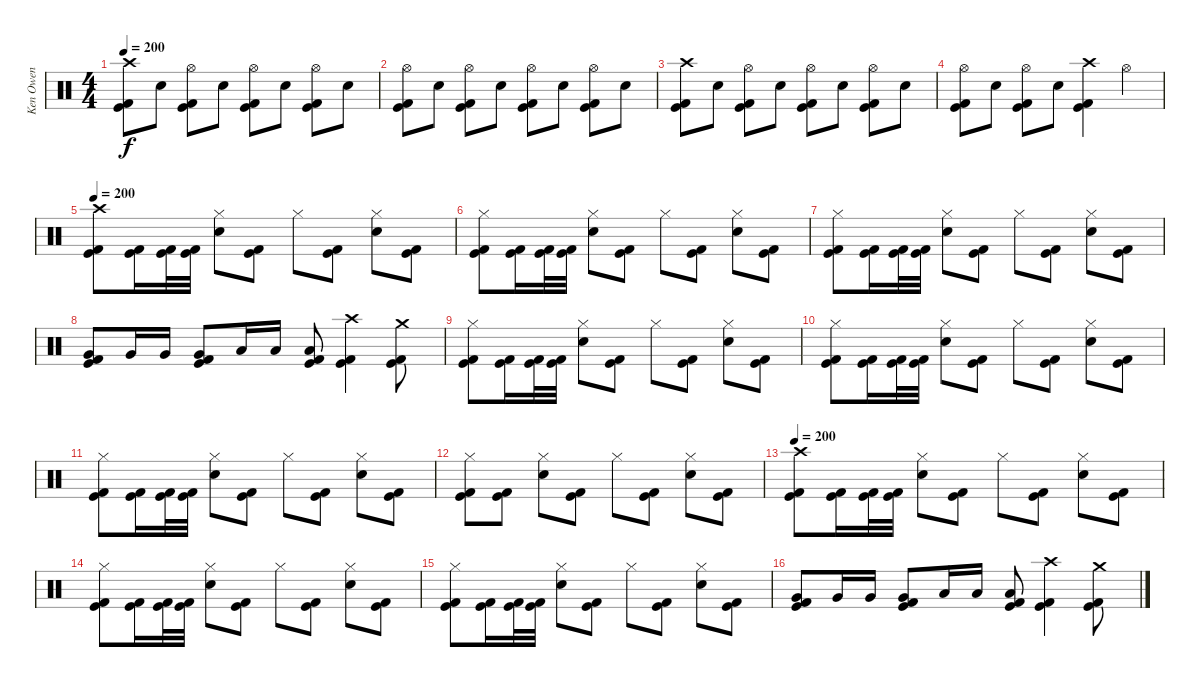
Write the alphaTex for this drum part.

\track ("Ken Owen" "Ken Owen") {instrument percussion}
\staff {score}
\articulation defaults
\ts (4 4)
\tempo 200
\clef neutral
\ks c
("Crash high (hit)" "Kick (hit)" "Kick (hit) 2").8{dy f} "Electric Snare (hit)".8 ("Hi-Hat (open)" "Kick (hit)" "Kick (hit) 2").8 "Electric Snare (hit)".8 ("Hi-Hat (open)" "Kick (hit)" "Kick (hit) 2").8 "Electric Snare (hit)".8 ("Hi-Hat (open)" "Kick (hit)" "Kick (hit) 2").8 "Electric Snare (hit)".8 |
("Hi-Hat (open)" "Kick (hit)" "Kick (hit) 2").8 "Electric Snare (hit)".8 ("Hi-Hat (open)" "Kick (hit)" "Kick (hit) 2").8 "Electric Snare (hit)".8 ("Hi-Hat (open)" "Kick (hit)" "Kick (hit) 2").8 "Electric Snare (hit)".8 ("Hi-Hat (open)" "Kick (hit)" "Kick (hit) 2").8 "Electric Snare (hit)".8 |
("Crash high (hit)" "Kick (hit)" "Kick (hit) 2").8 "Electric Snare (hit)".8 ("Hi-Hat (open)" "Kick (hit)" "Kick (hit) 2").8 "Electric Snare (hit)".8 ("Hi-Hat (open)" "Kick (hit)" "Kick (hit) 2").8 "Electric Snare (hit)".8 ("Hi-Hat (open)" "Kick (hit)" "Kick (hit) 2").8 "Electric Snare (hit)".8 |
("Hi-Hat (open)" "Kick (hit)" "Kick (hit) 2").8 "Electric Snare (hit)".8 ("Hi-Hat (open)" "Kick (hit)" "Kick (hit) 2").8 "Electric Snare (hit)".8 ("Crash high (hit)" "Kick (hit)" "Kick (hit) 2").4 "Hi-Hat (open)".4 |
\tempo 200
("Crash high (hit)" "Kick (hit)" "Kick (hit) 2").8 ("Kick (hit)" "Kick (hit) 2").16 ("Kick (hit)" "Kick (hit) 2").32 ("Kick (hit)" "Kick (hit) 2").32 ("Hi-Hat (closed)" "Electric Snare (hit)").8 ("Kick (hit)" "Kick (hit) 2").8 "Hi-Hat (closed)".8 ("Kick (hit)" "Kick (hit) 2").8 ("Hi-Hat (closed)" "Electric Snare (hit)").8 ("Kick (hit)" "Kick (hit) 2").8 |
("Hi-Hat (closed)" "Kick (hit)" "Kick (hit) 2").8 ("Kick (hit)" "Kick (hit) 2").16 ("Kick (hit)" "Kick (hit) 2").32 ("Kick (hit)" "Kick (hit) 2").32 ("Hi-Hat (closed)" "Electric Snare (hit)").8 ("Kick (hit)" "Kick (hit) 2").8 "Hi-Hat (closed)".8 ("Kick (hit)" "Kick (hit) 2").8 ("Hi-Hat (closed)" "Electric Snare (hit)").8 ("Kick (hit) 2" "Kick (hit)").8 |
("Hi-Hat (closed)" "Kick (hit)" "Kick (hit) 2").8 ("Kick (hit)" "Kick (hit) 2").16 ("Kick (hit)" "Kick (hit) 2").32 ("Kick (hit)" "Kick (hit) 2").32 ("Hi-Hat (closed)" "Electric Snare (hit)").8 ("Kick (hit)" "Kick (hit) 2").8 "Hi-Hat (closed)".8 ("Kick (hit)" "Kick (hit) 2").8 ("Hi-Hat (closed)" "Electric Snare (hit)").8 ("Kick (hit) 2" "Kick (hit)").8 |
("Very Low Tom (hit)" "Kick (hit)" "Kick (hit) 2").8 "Very Low Tom (hit)".16 "Very Low Tom (hit)".16 ("Very Low Tom (hit)" "Kick (hit)" "Kick (hit) 2").8 "Low Floor Tom (hit)".16 "Low Floor Tom (hit)".16 ("Low Floor Tom (hit)" "Kick (hit)" "Kick (hit) 2").8 ("Crash high (hit)" "Kick (hit)" "Kick (hit) 2").4 ("Crash medium (hit)" "Kick (hit)" "Kick (hit) 2").8 |
("Hi-Hat (closed)" "Kick (hit)" "Kick (hit) 2").8 ("Kick (hit)" "Kick (hit) 2").16 ("Kick (hit)" "Kick (hit) 2").32 ("Kick (hit)" "Kick (hit) 2").32 ("Hi-Hat (closed)" "Electric Snare (hit)").8 ("Kick (hit)" "Kick (hit) 2").8 "Hi-Hat (closed)".8 ("Kick (hit)" "Kick (hit) 2").8 ("Hi-Hat (closed)" "Electric Snare (hit)").8 ("Kick (hit)" "Kick (hit) 2").8 |
("Hi-Hat (closed)" "Kick (hit)" "Kick (hit) 2").8 ("Kick (hit)" "Kick (hit) 2").16 ("Kick (hit)" "Kick (hit) 2").32 ("Kick (hit)" "Kick (hit) 2").32 ("Hi-Hat (closed)" "Electric Snare (hit)").8 ("Kick (hit)" "Kick (hit) 2").8 "Hi-Hat (closed)".8 ("Kick (hit)" "Kick (hit) 2").8 ("Hi-Hat (closed)" "Electric Snare (hit)").8 ("Kick (hit) 2" "Kick (hit)").8 |
("Hi-Hat (closed)" "Kick (hit)" "Kick (hit) 2").8 ("Kick (hit)" "Kick (hit) 2").16 ("Kick (hit)" "Kick (hit) 2").32 ("Kick (hit)" "Kick (hit) 2").32 ("Hi-Hat (closed)" "Electric Snare (hit)").8 ("Kick (hit)" "Kick (hit) 2").8 "Hi-Hat (closed)".8 ("Kick (hit)" "Kick (hit) 2").8 ("Hi-Hat (closed)" "Electric Snare (hit)").8 ("Kick (hit) 2" "Kick (hit)").8 |
("Hi-Hat (closed)" "Kick (hit)" "Kick (hit) 2").8 ("Kick (hit)" "Kick (hit) 2").8 ("Hi-Hat (closed)" "Electric Snare (hit)").8 ("Kick (hit)" "Kick (hit) 2").8 "Hi-Hat (closed)".8 ("Kick (hit)" "Kick (hit) 2").8 ("Hi-Hat (closed)" "Electric Snare (hit)").8 ("Kick (hit) 2" "Kick (hit)").8 |
\tempo 200
("Crash high (hit)" "Kick (hit)" "Kick (hit) 2").8 ("Kick (hit)" "Kick (hit) 2").16 ("Kick (hit)" "Kick (hit) 2").32 ("Kick (hit)" "Kick (hit) 2").32 ("Hi-Hat (closed)" "Electric Snare (hit)").8 ("Kick (hit)" "Kick (hit) 2").8 "Hi-Hat (closed)".8 ("Kick (hit)" "Kick (hit) 2").8 ("Hi-Hat (closed)" "Electric Snare (hit)").8 ("Kick (hit)" "Kick (hit) 2").8 |
("Hi-Hat (closed)" "Kick (hit)" "Kick (hit) 2").8 ("Kick (hit)" "Kick (hit) 2").16 ("Kick (hit)" "Kick (hit) 2").32 ("Kick (hit)" "Kick (hit) 2").32 ("Hi-Hat (closed)" "Electric Snare (hit)").8 ("Kick (hit)" "Kick (hit) 2").8 "Hi-Hat (closed)".8 ("Kick (hit)" "Kick (hit) 2").8 ("Hi-Hat (closed)" "Electric Snare (hit)").8 ("Kick (hit) 2" "Kick (hit)").8 |
("Hi-Hat (closed)" "Kick (hit)" "Kick (hit) 2").8 ("Kick (hit)" "Kick (hit) 2").16 ("Kick (hit)" "Kick (hit) 2").32 ("Kick (hit)" "Kick (hit) 2").32 ("Hi-Hat (closed)" "Electric Snare (hit)").8 ("Kick (hit)" "Kick (hit) 2").8 "Hi-Hat (closed)".8 ("Kick (hit)" "Kick (hit) 2").8 ("Hi-Hat (closed)" "Electric Snare (hit)").8 ("Kick (hit) 2" "Kick (hit)").8 |
("Very Low Tom (hit)" "Kick (hit)" "Kick (hit) 2").8 "Very Low Tom (hit)".16 "Very Low Tom (hit)".16 ("Very Low Tom (hit)" "Kick (hit)" "Kick (hit) 2").8 "Low Floor Tom (hit)".16 "Low Floor Tom (hit)".16 ("Low Floor Tom (hit)" "Kick (hit)" "Kick (hit) 2").8 ("Crash high (hit)" "Kick (hit)" "Kick (hit) 2").4 ("Crash medium (hit)" "Kick (hit)" "Kick (hit) 2").8
